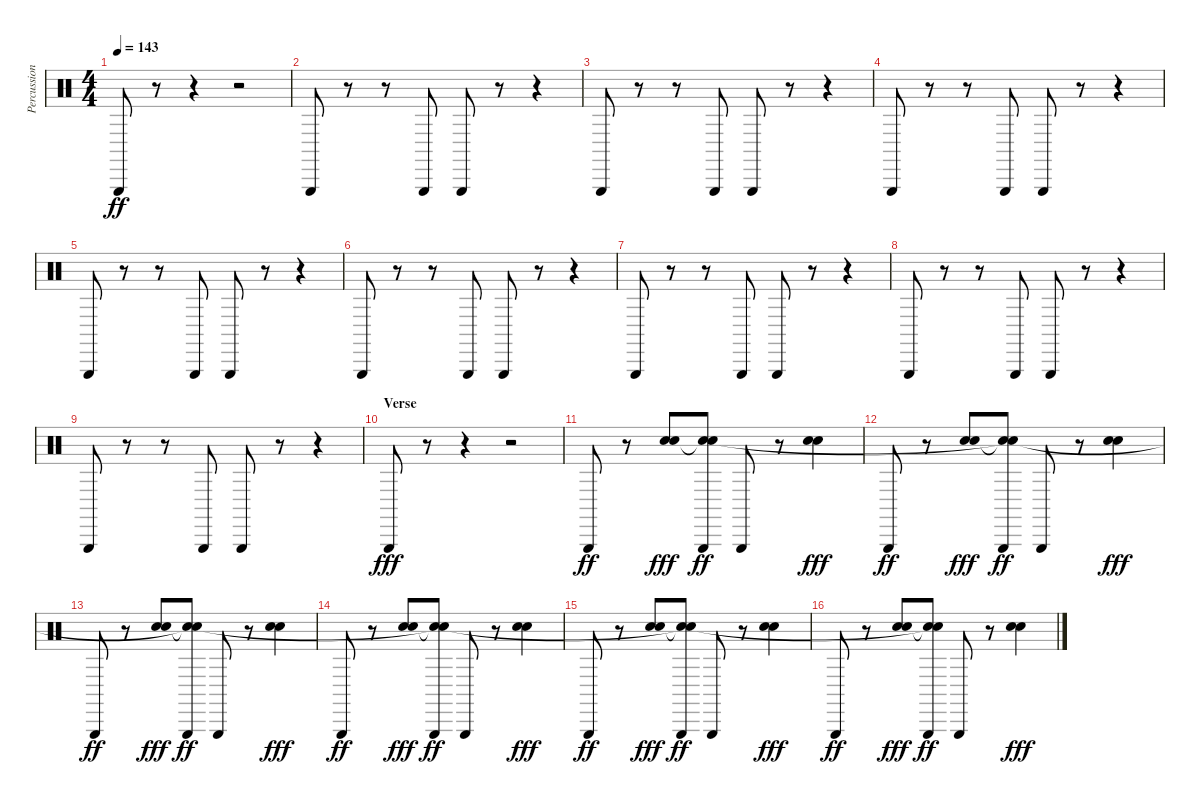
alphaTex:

\track ("Percussion" "Percussion") {instrument percussion}
\staff {score}
\articulation defaults
\ts (4 4)
\tempo 143
\clef neutral
\ks c "Triangle (hit)".8{dy ff}
r.8 r.4 r.2 |
"Triangle (hit)".8 r.8 r.8 "Triangle (hit)".8 "Triangle (hit)".8 r.8 r.4 |
"Triangle (hit)".8 r.8 r.8 "Triangle (hit)".8 "Triangle (hit)".8 r.8 r.4 |
"Triangle (hit)".8 r.8 r.8 "Triangle (hit)".8 "Triangle (hit)".8 r.8 r.4 |
"Triangle (hit)".8 r.8 r.8 "Triangle (hit)".8 "Triangle (hit)".8 r.8 r.4 |
"Triangle (hit)".8 r.8 r.8 "Triangle (hit)".8 "Triangle (hit)".8 r.8 r.4 |
"Triangle (hit)".8 r.8 r.8 "Triangle (hit)".8 "Triangle (hit)".8 r.8 r.4 |
"Triangle (hit)".8 r.8 r.8 "Triangle (hit)".8 "Triangle (hit)".8 r.8 r.4 |
"Triangle (hit)".8 r.8 r.8 "Triangle (hit)".8 "Triangle (hit)".8 r.8 r.4 |
\section ("" "Verse")
"Triangle (hit)".8{dy fff} r.8 r.4 r.2 |
"Triangle (hit)".8{dy ff} r.8 ("Hand Clap (hit)" "Hand Clap (hit)").8{dy fff} ("Triangle (hit)" "Snare (hit)"{t} "Snare (hit)").8{dy ff} "Triangle (hit)".8 r.8 ("Hand Clap (hit)" "Hand Clap (hit)").4{dy fff} |
"Triangle (hit)".8{dy ff} r.8 ("Hand Clap (hit)" "Hand Clap (hit)").8{dy fff} ("Triangle (hit)" "Snare (hit)"{t} "Snare (hit)"{t}).8{dy ff} "Triangle (hit)".8 r.8 ("Hand Clap (hit)" "Hand Clap (hit)").4{dy fff} |
"Triangle (hit)".8{dy ff} r.8 ("Hand Clap (hit)" "Hand Clap (hit)").8{dy fff} ("Triangle (hit)" "Snare (hit)"{t} "Snare (hit)"{t}).8{dy ff} "Triangle (hit)".8 r.8 ("Hand Clap (hit)" "Hand Clap (hit)").4{dy fff} |
"Triangle (hit)".8{dy ff} r.8 ("Hand Clap (hit)" "Hand Clap (hit)").8{dy fff} ("Triangle (hit)" "Snare (hit)"{t} "Snare (hit)"{t}).8{dy ff} "Triangle (hit)".8 r.8 ("Hand Clap (hit)" "Hand Clap (hit)").4{dy fff} |
"Triangle (hit)".8{dy ff} r.8 ("Hand Clap (hit)" "Hand Clap (hit)").8{dy fff} ("Triangle (hit)" "Snare (hit)"{t} "Snare (hit)"{t}).8{dy ff} "Triangle (hit)".8 r.8 ("Hand Clap (hit)" "Hand Clap (hit)").4{dy fff} |
"Triangle (hit)".8{dy ff} r.8 ("Hand Clap (hit)" "Hand Clap (hit)").8{dy fff} ("Triangle (hit)" "Snare (hit)"{t} "Snare (hit)"{t}).8{dy ff} "Triangle (hit)".8 r.8 ("Hand Clap (hit)" "Hand Clap (hit)").4{dy fff}
